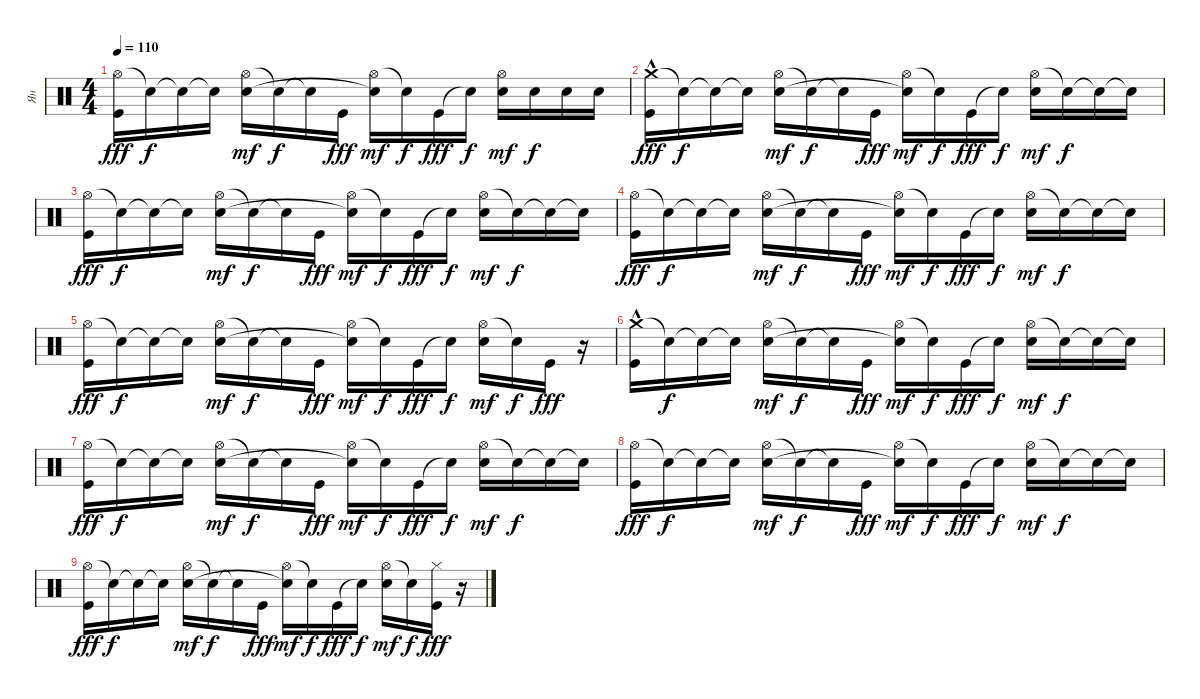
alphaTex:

\track ("Ян " "Ян ") {instrument percussion}
\staff
\articulation defaults
\ts (4 4)
\tempo 110
\clef neutral
\ks c
("Hi-Hat (open)" "Kick (hit)").16{dy fff} "Snare (hit)"{t}.16{dy f} "Snare (hit)"{t}.16 "Snare (hit)"{t}.16 ("Hi-Hat (open)" "Snare (hit) 2").16{dy mf} "Snare (hit)"{t}.16{dy f} "Snare (hit)"{t}.16 "Kick (hit)".16{dy fff} ("Hi-Hat (open)" "Snare (hit)"{t}).16{dy mf} "Snare (hit)"{t}.16{dy f} "Kick (hit)".16{dy fff} "Snare (hit)"{t}.16{dy f} ("Hi-Hat (open)" "Snare (hit) 2").16{dy mf} "Snare (hit) 2".16{dy f} "Snare (hit) 2".16 "Snare (hit) 2".16 |
("Crash medium (hit)" "Kick (hit)"{hac}).16{dy fff} "Snare (hit)"{t}.16{dy f} "Snare (hit)"{t}.16 "Snare (hit)"{t}.16 ("Hi-Hat (open)" "Snare (hit) 2").16{dy mf} "Snare (hit)"{t}.16{dy f} "Snare (hit)"{t}.16 "Kick (hit)".16{dy fff} ("Hi-Hat (open)" "Snare (hit)"{t}).16{dy mf} "Snare (hit)"{t}.16{dy f} "Kick (hit)".16{dy fff} "Snare (hit)"{t}.16{dy f} ("Hi-Hat (open)" "Snare (hit) 2").16{dy mf} "Snare (hit)"{t}.16{dy f} "Snare (hit)"{t}.16 "Snare (hit)"{t}.16 |
("Hi-Hat (open)" "Kick (hit)").16{dy fff} "Snare (hit)"{t}.16{dy f} "Snare (hit)"{t}.16 "Snare (hit)"{t}.16 ("Hi-Hat (open)" "Snare (hit) 2").16{dy mf} "Snare (hit)"{t}.16{dy f} "Snare (hit)"{t}.16 "Kick (hit)".16{dy fff} ("Hi-Hat (open)" "Snare (hit)"{t}).16{dy mf} "Snare (hit)"{t}.16{dy f} "Kick (hit)".16{dy fff} "Snare (hit)"{t}.16{dy f} ("Hi-Hat (open)" "Snare (hit) 2").16{dy mf} "Snare (hit)"{t}.16{dy f} "Snare (hit)"{t}.16 "Snare (hit)"{t}.16 |
("Hi-Hat (open)" "Kick (hit)").16{dy fff} "Snare (hit)"{t}.16{dy f} "Snare (hit)"{t}.16 "Snare (hit)"{t}.16 ("Hi-Hat (open)" "Snare (hit) 2").16{dy mf} "Snare (hit)"{t}.16{dy f} "Snare (hit)"{t}.16 "Kick (hit)".16{dy fff} ("Hi-Hat (open)" "Snare (hit)"{t}).16{dy mf} "Snare (hit)"{t}.16{dy f} "Kick (hit)".16{dy fff} "Snare (hit)"{t}.16{dy f} ("Hi-Hat (open)" "Snare (hit) 2").16{dy mf} "Snare (hit)"{t}.16{dy f} "Snare (hit)"{t}.16 "Snare (hit)"{t}.16 |
("Hi-Hat (open)" "Kick (hit)").16{dy fff} "Snare (hit)"{t}.16{dy f} "Snare (hit)"{t}.16 "Snare (hit)"{t}.16 ("Hi-Hat (open)" "Snare (hit) 2").16{dy mf} "Snare (hit)"{t}.16{dy f} "Snare (hit)"{t}.16 "Kick (hit)".16{dy fff} ("Hi-Hat (open)" "Snare (hit)"{t}).16{dy mf} "Snare (hit)"{t}.16{dy f} "Kick (hit)".16{dy fff} "Snare (hit)"{t}.16{dy f} ("Hi-Hat (open)" "Snare (hit) 2").16{dy mf} "Snare (hit)"{t}.16{dy f} "Kick (hit)".16{dy fff} r.16 |
("Crash medium (hit)" "Kick (hit)"{hac}).16 "Snare (hit)"{t}.16{dy f} "Snare (hit)"{t}.16 "Snare (hit)"{t}.16 ("Hi-Hat (open)" "Snare (hit) 2").16{dy mf} "Snare (hit)"{t}.16{dy f} "Snare (hit)"{t}.16 "Kick (hit)".16{dy fff} ("Hi-Hat (open)" "Snare (hit)"{t}).16{dy mf} "Snare (hit)"{t}.16{dy f} "Kick (hit)".16{dy fff} "Snare (hit)"{t}.16{dy f} ("Hi-Hat (open)" "Snare (hit) 2").16{dy mf} "Snare (hit)"{t}.16{dy f} "Snare (hit)"{t}.16 "Snare (hit)"{t}.16 |
("Hi-Hat (open)" "Kick (hit)").16{dy fff} "Snare (hit)"{t}.16{dy f} "Snare (hit)"{t}.16 "Snare (hit)"{t}.16 ("Hi-Hat (open)" "Snare (hit) 2").16{dy mf} "Snare (hit)"{t}.16{dy f} "Snare (hit)"{t}.16 "Kick (hit)".16{dy fff} ("Hi-Hat (open)" "Snare (hit)"{t}).16{dy mf} "Snare (hit)"{t}.16{dy f} "Kick (hit)".16{dy fff} "Snare (hit)"{t}.16{dy f} ("Hi-Hat (open)" "Snare (hit) 2").16{dy mf} "Snare (hit)"{t}.16{dy f} "Snare (hit)"{t}.16 "Snare (hit)"{t}.16 |
("Hi-Hat (open)" "Kick (hit)").16{dy fff} "Snare (hit)"{t}.16{dy f} "Snare (hit)"{t}.16 "Snare (hit)"{t}.16 ("Hi-Hat (open)" "Snare (hit) 2").16{dy mf} "Snare (hit)"{t}.16{dy f} "Snare (hit)"{t}.16 "Kick (hit)".16{dy fff} ("Hi-Hat (open)" "Snare (hit)"{t}).16{dy mf} "Snare (hit)"{t}.16{dy f} "Kick (hit)".16{dy fff} "Snare (hit)"{t}.16{dy f} ("Hi-Hat (open)" "Snare (hit) 2").16{dy mf} "Snare (hit)"{t}.16{dy f} "Snare (hit)"{t}.16 "Snare (hit)"{t}.16 |
("Hi-Hat (open)" "Kick (hit)").16{dy fff} "Snare (hit)"{t}.16{dy f} "Snare (hit)"{t}.16 "Snare (hit)"{t}.16 ("Hi-Hat (open)" "Snare (hit) 2").16{dy mf} "Snare (hit)"{t}.16{dy f} "Snare (hit)"{t}.16 "Kick (hit)".16{dy fff} ("Hi-Hat (open)" "Snare (hit)"{t}).16{dy mf} "Snare (hit)"{t}.16{dy f} "Kick (hit)".16{dy fff} "Snare (hit)"{t}.16{dy f} ("Hi-Hat (open)" "Snare (hit) 2").16{dy mf} "Snare (hit)"{t}.16{dy f} ("Hi-Hat (closed)" "Kick (hit)").16{dy fff} r.16
